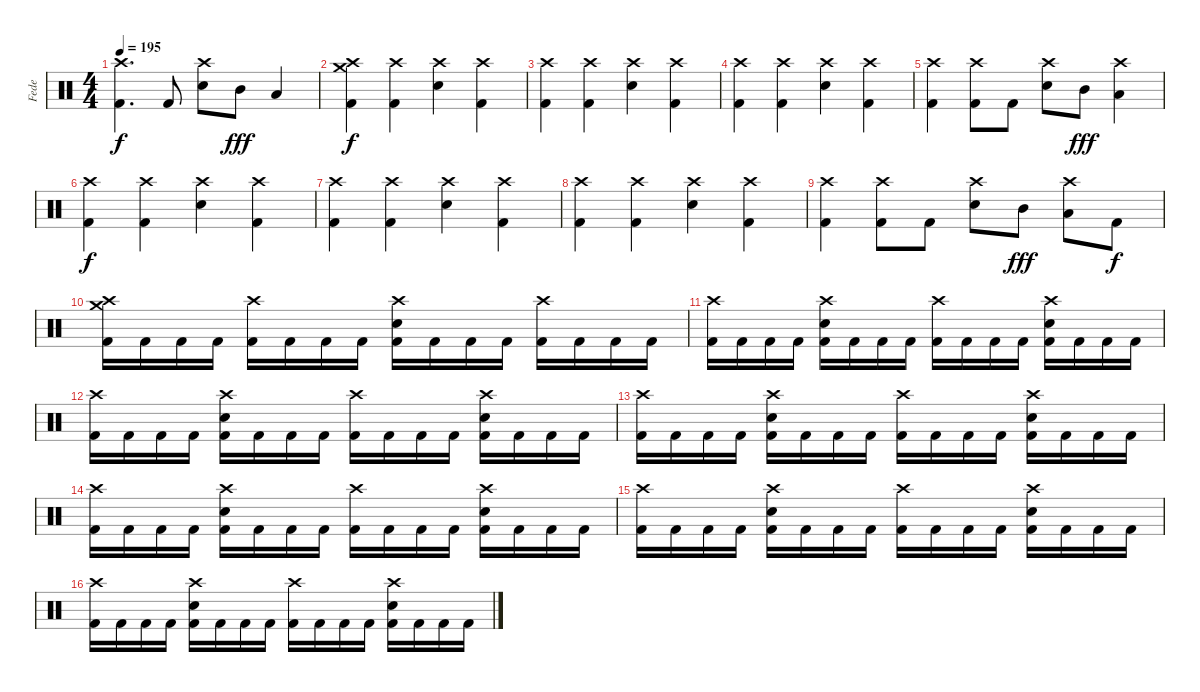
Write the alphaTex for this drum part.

\track ("Fede" "Fede") {instrument percussion}
\staff {score}
\articulation defaults
\ts (4 4)
\tempo 195
\clef neutral
\ks c
("Crash high (hit)" "Kick (hit) 2").4{d dy f} "Kick (hit) 2".8 ("Crash high (hit)" "Snare (hit) 2").8 "Mid Tom (hit)".8{dy fff} "Low Tom (hit)".4 |
("Crash high (hit)" "Crash medium (hit)" "Kick (hit) 2").4{dy f} ("Crash high (hit)" "Kick (hit) 2").4 ("Crash high (hit)" "Snare (hit) 2").4 ("Crash high (hit)" "Kick (hit) 2").4 |
("Crash high (hit)" "Kick (hit) 2").4 ("Crash high (hit)" "Kick (hit) 2").4 ("Crash high (hit)" "Snare (hit) 2").4 ("Crash high (hit)" "Kick (hit) 2").4 |
("Crash high (hit)" "Kick (hit) 2").4 ("Crash high (hit)" "Kick (hit) 2").4 ("Crash high (hit)" "Snare (hit) 2").4 ("Crash high (hit)" "Kick (hit) 2").4 |
("Crash high (hit)" "Kick (hit) 2").4 ("Crash high (hit)" "Kick (hit) 2").8 "Kick (hit) 2".8 ("Crash high (hit)" "Snare (hit) 2").8 "Mid Tom (hit)".8{dy fff} ("Crash high (hit)" "Low Tom (hit)").4 |
("Crash high (hit)" "Kick (hit) 2").4{dy f} ("Crash high (hit)" "Kick (hit) 2").4 ("Crash high (hit)" "Snare (hit) 2").4 ("Crash high (hit)" "Kick (hit) 2").4 |
("Crash high (hit)" "Kick (hit) 2").4 ("Crash high (hit)" "Kick (hit) 2").4 ("Crash high (hit)" "Snare (hit) 2").4 ("Crash high (hit)" "Kick (hit) 2").4 |
("Crash high (hit)" "Kick (hit) 2").4 ("Crash high (hit)" "Kick (hit) 2").4 ("Crash high (hit)" "Snare (hit) 2").4 ("Crash high (hit)" "Kick (hit) 2").4 |
("Crash high (hit)" "Kick (hit) 2").4 ("Crash high (hit)" "Kick (hit) 2").8 "Kick (hit) 2".8 ("Crash high (hit)" "Snare (hit) 2").8 "Mid Tom (hit)".8{dy fff} ("Crash high (hit)" "Low Tom (hit)").8 "Kick (hit) 2".8{dy f} |
("Crash high (hit)" "Crash medium (hit)" "Kick (hit) 2").16 "Kick (hit) 2".16 "Kick (hit) 2".16 "Kick (hit) 2".16 ("Crash high (hit)" "Kick (hit) 2").16 "Kick (hit) 2".16 "Kick (hit) 2".16 "Kick (hit) 2".16 ("Crash high (hit)" "Snare (hit) 2" "Kick (hit) 2").16 "Kick (hit) 2".16 "Kick (hit) 2".16 "Kick (hit) 2".16 ("Crash high (hit)" "Kick (hit) 2").16 "Kick (hit) 2".16 "Kick (hit) 2".16 "Kick (hit) 2".16 |
("Crash high (hit)" "Kick (hit) 2").16 "Kick (hit) 2".16 "Kick (hit) 2".16 "Kick (hit) 2".16 ("Crash high (hit)" "Snare (hit) 2" "Kick (hit) 2").16 "Kick (hit) 2".16 "Kick (hit) 2".16 "Kick (hit) 2".16 ("Crash high (hit)" "Kick (hit) 2").16 "Kick (hit) 2".16 "Kick (hit) 2".16 "Kick (hit) 2".16 ("Crash high (hit)" "Snare (hit) 2" "Kick (hit) 2").16 "Kick (hit) 2".16 "Kick (hit) 2".16 "Kick (hit) 2".16 |
("Crash high (hit)" "Kick (hit) 2").16 "Kick (hit) 2".16 "Kick (hit) 2".16 "Kick (hit) 2".16 ("Crash high (hit)" "Snare (hit) 2" "Kick (hit) 2").16 "Kick (hit) 2".16 "Kick (hit) 2".16 "Kick (hit) 2".16 ("Crash high (hit)" "Kick (hit) 2").16 "Kick (hit) 2".16 "Kick (hit) 2".16 "Kick (hit) 2".16 ("Crash high (hit)" "Snare (hit) 2" "Kick (hit) 2").16 "Kick (hit) 2".16 "Kick (hit) 2".16 "Kick (hit) 2".16 |
("Crash high (hit)" "Kick (hit) 2").16 "Kick (hit) 2".16 "Kick (hit) 2".16 "Kick (hit) 2".16 ("Crash high (hit)" "Snare (hit) 2" "Kick (hit) 2").16 "Kick (hit) 2".16 "Kick (hit) 2".16 "Kick (hit) 2".16 ("Crash high (hit)" "Kick (hit) 2").16 "Kick (hit) 2".16 "Kick (hit) 2".16 "Kick (hit) 2".16 ("Crash high (hit)" "Snare (hit) 2" "Kick (hit) 2").16 "Kick (hit) 2".16 "Kick (hit) 2".16 "Kick (hit) 2".16 |
("Crash high (hit)" "Kick (hit) 2").16 "Kick (hit) 2".16 "Kick (hit) 2".16 "Kick (hit) 2".16 ("Crash high (hit)" "Snare (hit) 2" "Kick (hit) 2").16 "Kick (hit) 2".16 "Kick (hit) 2".16 "Kick (hit) 2".16 ("Crash high (hit)" "Kick (hit) 2").16 "Kick (hit) 2".16 "Kick (hit) 2".16 "Kick (hit) 2".16 ("Crash high (hit)" "Snare (hit) 2" "Kick (hit) 2").16 "Kick (hit) 2".16 "Kick (hit) 2".16 "Kick (hit) 2".16 |
("Crash high (hit)" "Kick (hit) 2").16 "Kick (hit) 2".16 "Kick (hit) 2".16 "Kick (hit) 2".16 ("Crash high (hit)" "Snare (hit) 2" "Kick (hit) 2").16 "Kick (hit) 2".16 "Kick (hit) 2".16 "Kick (hit) 2".16 ("Crash high (hit)" "Kick (hit) 2").16 "Kick (hit) 2".16 "Kick (hit) 2".16 "Kick (hit) 2".16 ("Crash high (hit)" "Snare (hit) 2" "Kick (hit) 2").16 "Kick (hit) 2".16 "Kick (hit) 2".16 "Kick (hit) 2".16 |
("Crash high (hit)" "Kick (hit) 2").16 "Kick (hit) 2".16 "Kick (hit) 2".16 "Kick (hit) 2".16 ("Crash high (hit)" "Snare (hit) 2" "Kick (hit) 2").16 "Kick (hit) 2".16 "Kick (hit) 2".16 "Kick (hit) 2".16 ("Crash high (hit)" "Kick (hit) 2").16 "Kick (hit) 2".16 "Kick (hit) 2".16 "Kick (hit) 2".16 ("Crash high (hit)" "Snare (hit) 2" "Kick (hit) 2").16 "Kick (hit) 2".16 "Kick (hit) 2".16 "Kick (hit) 2".16
